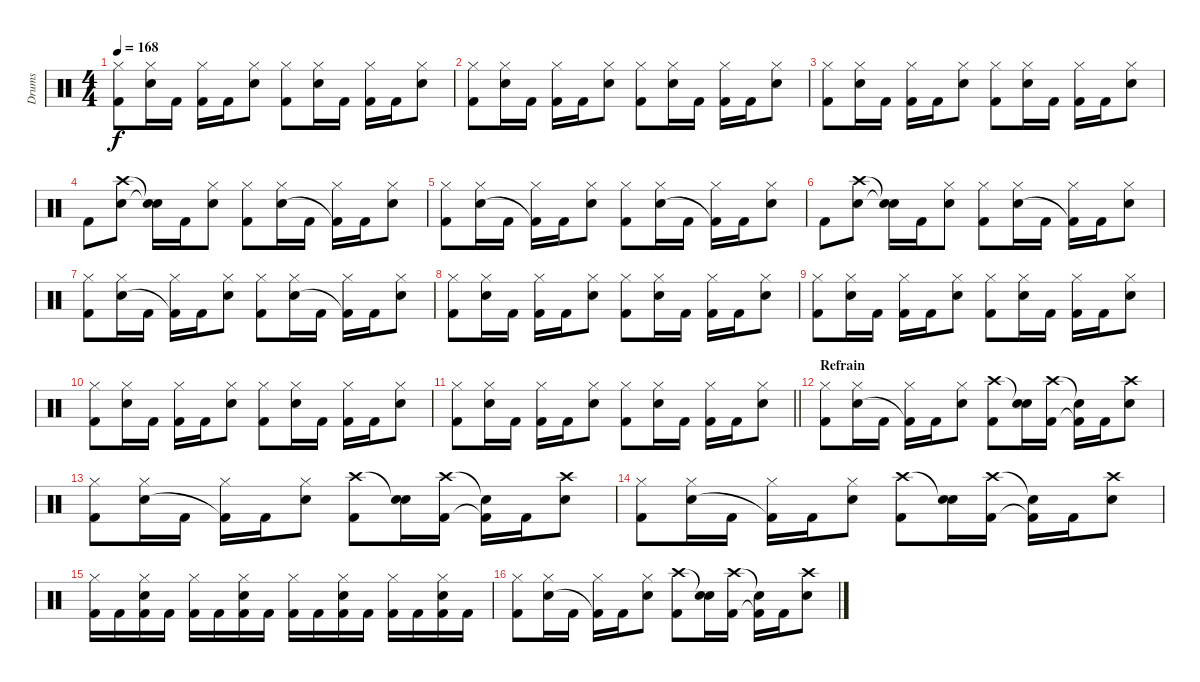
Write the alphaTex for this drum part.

\track ("Drums" "Drums") {instrument percussion}
\staff {score}
\articulation defaults
\ts (4 4)
\tempo 168
\clef neutral
\ks c
("Hi-Hat (closed)" "Kick (hit) 2").8{dy f} ("Hi-Hat (closed)" "Electric Snare (hit)").16 "Kick (hit) 2".16 ("Hi-Hat (closed)" "Kick (hit) 2").16 "Kick (hit) 2".16 ("Hi-Hat (closed)" "Electric Snare (hit)").8 ("Hi-Hat (closed)" "Kick (hit) 2").8 ("Hi-Hat (closed)" "Electric Snare (hit)").16 "Kick (hit) 2".16 ("Hi-Hat (closed)" "Kick (hit) 2").16 "Kick (hit) 2".16 ("Hi-Hat (closed)" "Electric Snare (hit)").8 |
("Hi-Hat (closed)" "Kick (hit) 2").8 ("Hi-Hat (closed)" "Electric Snare (hit)").16 "Kick (hit) 2".16 ("Hi-Hat (closed)" "Kick (hit) 2").16 "Kick (hit) 2".16 ("Hi-Hat (closed)" "Electric Snare (hit)").8 ("Hi-Hat (closed)" "Kick (hit) 2").8 ("Hi-Hat (closed)" "Electric Snare (hit)").16 "Kick (hit) 2".16 ("Hi-Hat (closed)" "Kick (hit) 2").16 "Kick (hit) 2".16 ("Hi-Hat (closed)" "Electric Snare (hit)").8 |
("Hi-Hat (closed)" "Kick (hit) 2").8 ("Hi-Hat (closed)" "Electric Snare (hit)").16 "Kick (hit) 2".16 ("Hi-Hat (closed)" "Kick (hit) 2").16 "Kick (hit) 2".16 ("Hi-Hat (closed)" "Electric Snare (hit)").8 ("Hi-Hat (closed)" "Kick (hit) 2").8 ("Hi-Hat (closed)" "Electric Snare (hit)").16 "Kick (hit) 2".16 ("Hi-Hat (closed)" "Kick (hit) 2").16 "Kick (hit) 2".16 ("Hi-Hat (closed)" "Electric Snare (hit)").8 |
"Kick (hit) 2".8 ("Crash high (hit)" "Electric Snare (hit)").8 ("Snare (hit)"{t} "Snare (hit)"{t}).16 "Kick (hit) 2".16 ("Hi-Hat (closed)" "Electric Snare (hit)").8 ("Hi-Hat (closed)" "Kick (hit) 2").8 ("Hi-Hat (closed)" "Electric Snare (hit)").16 "Kick (hit) 2".16 ("Hi-Hat (closed)" "Kick (hit) 2"{t}).16 "Kick (hit) 2".16 ("Hi-Hat (closed)" "Electric Snare (hit)").8 |
("Hi-Hat (closed)" "Kick (hit) 2").8 ("Hi-Hat (closed)" "Electric Snare (hit)").16 "Kick (hit) 2".16 ("Hi-Hat (closed)" "Kick (hit) 2"{t}).16 "Kick (hit) 2".16 ("Hi-Hat (closed)" "Electric Snare (hit)").8 ("Hi-Hat (closed)" "Kick (hit) 2").8 ("Hi-Hat (closed)" "Electric Snare (hit)").16 "Kick (hit) 2".16 ("Hi-Hat (closed)" "Kick (hit) 2"{t}).16 "Kick (hit) 2".16 ("Hi-Hat (closed)" "Electric Snare (hit)").8 |
"Kick (hit) 2".8 ("Crash high (hit)" "Electric Snare (hit)").8 ("Snare (hit)"{t} "Snare (hit)"{t}).16 "Kick (hit) 2".16 ("Hi-Hat (closed)" "Electric Snare (hit)").8 ("Hi-Hat (closed)" "Kick (hit) 2").8 ("Hi-Hat (closed)" "Electric Snare (hit)").16 "Kick (hit) 2".16 ("Hi-Hat (closed)" "Kick (hit) 2"{t}).16 "Kick (hit) 2".16 ("Hi-Hat (closed)" "Electric Snare (hit)").8 |
("Hi-Hat (closed)" "Kick (hit) 2").8 ("Hi-Hat (closed)" "Electric Snare (hit)").16 "Kick (hit) 2".16 ("Hi-Hat (closed)" "Kick (hit) 2"{t}).16 "Kick (hit) 2".16 ("Hi-Hat (closed)" "Electric Snare (hit)").8 ("Hi-Hat (closed)" "Kick (hit) 2").8 ("Hi-Hat (closed)" "Electric Snare (hit)").16 "Kick (hit) 2".16 ("Hi-Hat (closed)" "Kick (hit) 2"{t}).16 "Kick (hit) 2".16 ("Hi-Hat (closed)" "Electric Snare (hit)").8 |
("Hi-Hat (closed)" "Kick (hit) 2").8 ("Hi-Hat (closed)" "Electric Snare (hit)").16 "Kick (hit) 2".16 ("Hi-Hat (closed)" "Kick (hit) 2").16 "Kick (hit) 2".16 ("Hi-Hat (closed)" "Electric Snare (hit)").8 ("Hi-Hat (closed)" "Kick (hit) 2").8 ("Hi-Hat (closed)" "Electric Snare (hit)").16 "Kick (hit) 2".16 ("Hi-Hat (closed)" "Kick (hit) 2").16 "Kick (hit) 2".16 ("Hi-Hat (closed)" "Electric Snare (hit)").8 |
("Hi-Hat (closed)" "Kick (hit) 2").8 ("Hi-Hat (closed)" "Electric Snare (hit)").16 "Kick (hit) 2".16 ("Hi-Hat (closed)" "Kick (hit) 2").16 "Kick (hit) 2".16 ("Hi-Hat (closed)" "Electric Snare (hit)").8 ("Hi-Hat (closed)" "Kick (hit) 2").8 ("Hi-Hat (closed)" "Electric Snare (hit)").16 "Kick (hit) 2".16 ("Hi-Hat (closed)" "Kick (hit) 2").16 "Kick (hit) 2".16 ("Hi-Hat (closed)" "Electric Snare (hit)").8 |
("Hi-Hat (closed)" "Kick (hit) 2").8 ("Hi-Hat (closed)" "Electric Snare (hit)").16 "Kick (hit) 2".16 ("Hi-Hat (closed)" "Kick (hit) 2").16 "Kick (hit) 2".16 ("Hi-Hat (closed)" "Electric Snare (hit)").8 ("Hi-Hat (closed)" "Kick (hit) 2").8 ("Hi-Hat (closed)" "Electric Snare (hit)").16 "Kick (hit) 2".16 ("Hi-Hat (closed)" "Kick (hit) 2").16 "Kick (hit) 2".16 ("Hi-Hat (closed)" "Electric Snare (hit)").8 |
\barLineRight lightlight
("Hi-Hat (closed)" "Kick (hit) 2").8 ("Hi-Hat (closed)" "Electric Snare (hit)").16 "Kick (hit) 2".16 ("Hi-Hat (closed)" "Kick (hit) 2").16 "Kick (hit) 2".16 ("Hi-Hat (closed)" "Electric Snare (hit)").8 ("Hi-Hat (closed)" "Kick (hit) 2").8 ("Hi-Hat (closed)" "Electric Snare (hit)").16 "Kick (hit) 2".16 ("Hi-Hat (closed)" "Kick (hit) 2").16 "Kick (hit) 2".16 ("Hi-Hat (closed)" "Electric Snare (hit)").8 |
\section ("" "Refrain")
("Hi-Hat (closed)" "Kick (hit) 2").8 ("Hi-Hat (closed)" "Electric Snare (hit)").16 "Kick (hit) 2".16 ("Hi-Hat (closed)" "Kick (hit) 2"{t}).16 "Kick (hit) 2".16 ("Hi-Hat (closed)" "Electric Snare (hit)").8 ("Crash high (hit)" "Kick (hit) 2").8 ("Snare (hit)"{t} "Electric Snare (hit)").16 ("Crash high (hit)" "Kick (hit) 2").16 ("Snare (hit)"{t} "Kick (hit) 2"{t}).16 "Kick (hit) 2".16 ("Crash high (hit)" "Electric Snare (hit)").8 |
("Hi-Hat (closed)" "Kick (hit) 2").8 ("Hi-Hat (closed)" "Electric Snare (hit)").16 "Kick (hit) 2".16 ("Hi-Hat (closed)" "Kick (hit) 2"{t}).16 "Kick (hit) 2".16 ("Hi-Hat (closed)" "Electric Snare (hit)").8 ("Crash high (hit)" "Kick (hit) 2").8 ("Snare (hit)"{t} "Electric Snare (hit)").16 ("Crash high (hit)" "Kick (hit) 2").16 ("Snare (hit)"{t} "Kick (hit) 2"{t}).16 "Kick (hit) 2".16 ("Crash high (hit)" "Electric Snare (hit)").8 |
("Hi-Hat (closed)" "Kick (hit) 2").8 ("Hi-Hat (closed)" "Electric Snare (hit)").16 "Kick (hit) 2".16 ("Hi-Hat (closed)" "Kick (hit) 2"{t}).16 "Kick (hit) 2".16 ("Hi-Hat (closed)" "Electric Snare (hit)").8 ("Crash high (hit)" "Kick (hit) 2").8 ("Snare (hit)"{t} "Electric Snare (hit)").16 ("Crash high (hit)" "Kick (hit) 2").16 ("Snare (hit)"{t} "Kick (hit) 2"{t}).16 "Kick (hit) 2".16 ("Crash high (hit)" "Electric Snare (hit)").8 |
("Hi-Hat (closed)" "Kick (hit) 2").16 "Kick (hit) 2".16 ("Hi-Hat (closed)" "Electric Snare (hit)" "Kick (hit) 2").16 "Kick (hit) 2".16 ("Hi-Hat (closed)" "Kick (hit) 2").16 "Kick (hit) 2".16 ("Hi-Hat (closed)" "Electric Snare (hit)" "Kick (hit) 2").16 "Kick (hit) 2".16 ("Hi-Hat (closed)" "Kick (hit) 2").16 "Kick (hit) 2".16 ("Hi-Hat (closed)" "Electric Snare (hit)" "Kick (hit) 2").16 "Kick (hit) 2".16 ("Hi-Hat (closed)" "Kick (hit) 2").16 "Kick (hit) 2".16 ("Hi-Hat (closed)" "Electric Snare (hit)" "Kick (hit) 2").16 "Kick (hit) 2".16 |
("Hi-Hat (closed)" "Kick (hit) 2").8 ("Hi-Hat (closed)" "Electric Snare (hit)").16 "Kick (hit) 2".16 ("Hi-Hat (closed)" "Kick (hit) 2"{t}).16 "Kick (hit) 2".16 ("Hi-Hat (closed)" "Electric Snare (hit)").8 ("Crash high (hit)" "Kick (hit) 2").8 ("Snare (hit)"{t} "Electric Snare (hit)").16 ("Crash high (hit)" "Kick (hit) 2").16 ("Snare (hit)"{t} "Kick (hit) 2"{t}).16 "Kick (hit) 2".16 ("Crash high (hit)" "Electric Snare (hit)").8
